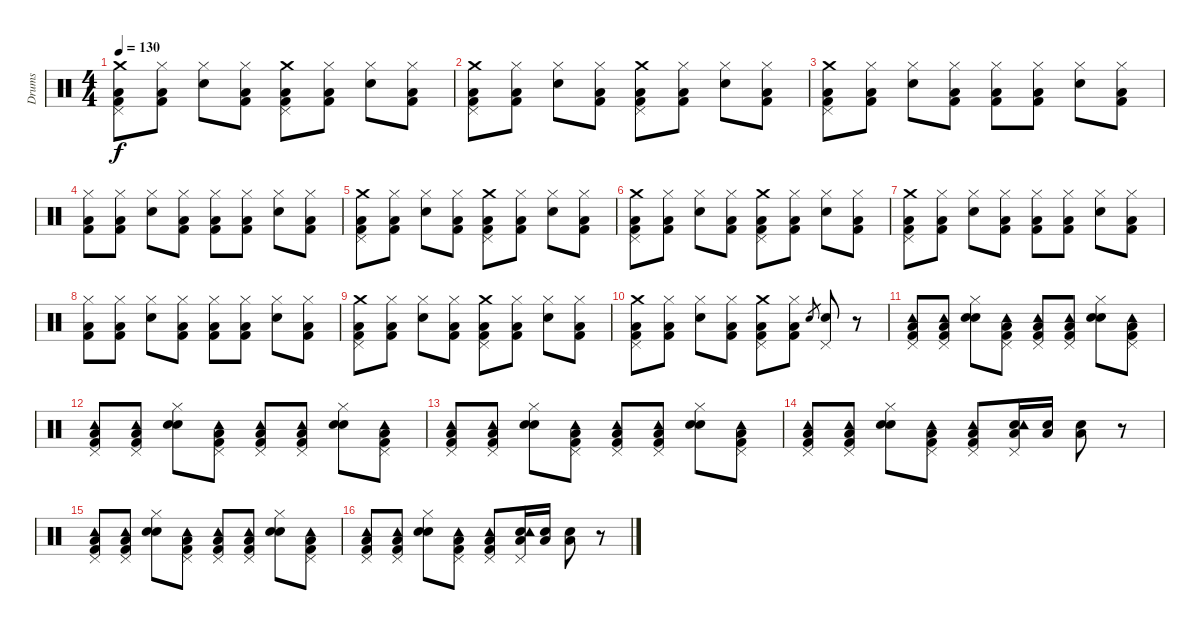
\track ("Drums" "Drums") {instrument percussion}
\staff {score}
\articulation defaults
\ts (4 4)
\tempo 130
\clef neutral
\ks c
("Kick (hit) 2" "Low Floor Tom (hit)" "Pedal Hi-Hat (hit)" "Crash medium (hit)").8{dy f} ("Kick (hit) 2" "Low Floor Tom (hit)" "Hi-Hat (closed)").8 ("Electric Snare (hit)" "Hi-Hat (closed)").8 ("Kick (hit) 2" "Low Floor Tom (hit)" "Hi-Hat (closed)").8 ("Kick (hit) 2" "Low Floor Tom (hit)" "Pedal Hi-Hat (hit)" "Crash medium (hit)").8 ("Kick (hit) 2" "Low Floor Tom (hit)" "Hi-Hat (closed)").8 ("Electric Snare (hit)" "Hi-Hat (closed)").8 ("Kick (hit) 2" "Low Floor Tom (hit)" "Hi-Hat (closed)").8 |
("Kick (hit) 2" "Low Floor Tom (hit)" "Pedal Hi-Hat (hit)" "Crash medium (hit)").8 ("Kick (hit) 2" "Low Floor Tom (hit)" "Hi-Hat (closed)").8 ("Electric Snare (hit)" "Hi-Hat (closed)").8 ("Kick (hit) 2" "Low Floor Tom (hit)" "Hi-Hat (closed)").8 ("Kick (hit) 2" "Low Floor Tom (hit)" "Pedal Hi-Hat (hit)" "Crash medium (hit)").8 ("Kick (hit) 2" "Low Floor Tom (hit)" "Hi-Hat (closed)").8 ("Electric Snare (hit)" "Hi-Hat (closed)").8 ("Kick (hit) 2" "Low Floor Tom (hit)" "Hi-Hat (closed)").8 |
("Kick (hit) 2" "Low Floor Tom (hit)" "Pedal Hi-Hat (hit)" "Crash medium (hit)").8 ("Kick (hit) 2" "Low Floor Tom (hit)" "Hi-Hat (closed)").8 ("Electric Snare (hit)" "Hi-Hat (closed)").8 ("Kick (hit) 2" "Low Floor Tom (hit)" "Hi-Hat (closed)").8 ("Kick (hit) 2" "Low Floor Tom (hit)" "Hi-Hat (closed)").8 ("Kick (hit) 2" "Low Floor Tom (hit)" "Hi-Hat (closed)").8 ("Electric Snare (hit)" "Hi-Hat (closed)").8 ("Kick (hit) 2" "Low Floor Tom (hit)" "Hi-Hat (closed)").8 |
("Kick (hit) 2" "Low Floor Tom (hit)" "Hi-Hat (closed)").8 ("Kick (hit) 2" "Low Floor Tom (hit)" "Hi-Hat (closed)").8 ("Electric Snare (hit)" "Hi-Hat (closed)").8 ("Kick (hit) 2" "Low Floor Tom (hit)" "Hi-Hat (closed)").8 ("Kick (hit) 2" "Low Floor Tom (hit)" "Hi-Hat (closed)").8 ("Kick (hit) 2" "Low Floor Tom (hit)" "Hi-Hat (closed)").8 ("Electric Snare (hit)" "Hi-Hat (closed)").8 ("Kick (hit) 2" "Low Floor Tom (hit)" "Hi-Hat (closed)").8 |
("Kick (hit) 2" "Low Floor Tom (hit)" "Pedal Hi-Hat (hit)" "Crash medium (hit)").8 ("Kick (hit) 2" "Low Floor Tom (hit)" "Hi-Hat (closed)").8 ("Electric Snare (hit)" "Hi-Hat (closed)").8 ("Kick (hit) 2" "Low Floor Tom (hit)" "Hi-Hat (closed)").8 ("Kick (hit) 2" "Low Floor Tom (hit)" "Pedal Hi-Hat (hit)" "Crash medium (hit)").8 ("Kick (hit) 2" "Low Floor Tom (hit)" "Hi-Hat (closed)").8 ("Electric Snare (hit)" "Hi-Hat (closed)").8 ("Kick (hit) 2" "Low Floor Tom (hit)" "Hi-Hat (closed)").8 |
("Kick (hit) 2" "Low Floor Tom (hit)" "Pedal Hi-Hat (hit)" "Crash medium (hit)").8 ("Kick (hit) 2" "Low Floor Tom (hit)" "Hi-Hat (closed)").8 ("Electric Snare (hit)" "Hi-Hat (closed)").8 ("Kick (hit) 2" "Low Floor Tom (hit)" "Hi-Hat (closed)").8 ("Kick (hit) 2" "Low Floor Tom (hit)" "Pedal Hi-Hat (hit)" "Crash medium (hit)").8 ("Kick (hit) 2" "Low Floor Tom (hit)" "Hi-Hat (closed)").8 ("Electric Snare (hit)" "Hi-Hat (closed)").8 ("Kick (hit) 2" "Low Floor Tom (hit)" "Hi-Hat (closed)").8 |
("Kick (hit) 2" "Low Floor Tom (hit)" "Pedal Hi-Hat (hit)" "Crash medium (hit)").8 ("Kick (hit) 2" "Low Floor Tom (hit)" "Hi-Hat (closed)").8 ("Electric Snare (hit)" "Hi-Hat (closed)").8 ("Kick (hit) 2" "Low Floor Tom (hit)" "Hi-Hat (closed)").8 ("Kick (hit) 2" "Low Floor Tom (hit)" "Hi-Hat (closed)").8 ("Kick (hit) 2" "Low Floor Tom (hit)" "Hi-Hat (closed)").8 ("Electric Snare (hit)" "Hi-Hat (closed)").8 ("Kick (hit) 2" "Low Floor Tom (hit)" "Hi-Hat (closed)").8 |
("Kick (hit) 2" "Low Floor Tom (hit)" "Hi-Hat (closed)").8 ("Kick (hit) 2" "Low Floor Tom (hit)" "Hi-Hat (closed)").8 ("Electric Snare (hit)" "Hi-Hat (closed)").8 ("Kick (hit) 2" "Low Floor Tom (hit)" "Hi-Hat (closed)").8 ("Kick (hit) 2" "Low Floor Tom (hit)" "Hi-Hat (closed)").8 ("Kick (hit) 2" "Low Floor Tom (hit)" "Hi-Hat (closed)").8 ("Electric Snare (hit)" "Hi-Hat (closed)").8 ("Kick (hit) 2" "Low Floor Tom (hit)" "Hi-Hat (closed)").8 |
("Kick (hit) 2" "Low Floor Tom (hit)" "Pedal Hi-Hat (hit)" "Crash medium (hit)").8 ("Kick (hit) 2" "Low Floor Tom (hit)" "Hi-Hat (closed)").8 ("Electric Snare (hit)" "Hi-Hat (closed)").8 ("Kick (hit) 2" "Low Floor Tom (hit)" "Hi-Hat (closed)").8 ("Kick (hit) 2" "Low Floor Tom (hit)" "Pedal Hi-Hat (hit)" "Crash medium (hit)").8 ("Kick (hit) 2" "Low Floor Tom (hit)" "Hi-Hat (closed)").8 ("Electric Snare (hit)" "Hi-Hat (closed)").8 ("Kick (hit) 2" "Low Floor Tom (hit)" "Hi-Hat (closed)").8 |
("Kick (hit) 2" "Low Floor Tom (hit)" "Pedal Hi-Hat (hit)" "Crash medium (hit)").8 ("Kick (hit) 2" "Low Floor Tom (hit)" "Hi-Hat (closed)").8 ("Electric Snare (hit)" "Hi-Hat (closed)").8 ("Kick (hit) 2" "Low Floor Tom (hit)" "Hi-Hat (closed)").8 ("Kick (hit) 2" "Low Floor Tom (hit)" "Pedal Hi-Hat (hit)" "Crash medium (hit)").8 ("Kick (hit) 2" "Low Floor Tom (hit)" "Hi-Hat (closed)").8 "Electric Snare (hit)".8{gr} ("Electric Snare (hit)" "Pedal Hi-Hat (hit)").8 r.8 |
("Kick (hit) 2" "Low Floor Tom (hit)" "Pedal Hi-Hat (hit)" "Tambourine (hit)").8{volume 13} ("Kick (hit) 2" "Low Floor Tom (hit)" "Pedal Hi-Hat (hit)" "Tambourine (hit)").8 ("Electric Snare (hit)" "Hand Clap (hit)" "Hi-Hat (closed)").8 ("Kick (hit) 2" "Low Floor Tom (hit)" "Pedal Hi-Hat (hit)" "Tambourine (hit)").8 ("Kick (hit) 2" "Low Floor Tom (hit)" "Pedal Hi-Hat (hit)" "Tambourine (hit)").8 ("Kick (hit) 2" "Low Floor Tom (hit)" "Pedal Hi-Hat (hit)" "Tambourine (hit)").8 ("Electric Snare (hit)" "Hand Clap (hit)" "Hi-Hat (closed)").8 ("Kick (hit) 2" "Low Floor Tom (hit)" "Pedal Hi-Hat (hit)" "Tambourine (hit)").8 |
("Kick (hit) 2" "Low Floor Tom (hit)" "Pedal Hi-Hat (hit)" "Tambourine (hit)").8{volume 13} ("Kick (hit) 2" "Low Floor Tom (hit)" "Pedal Hi-Hat (hit)" "Tambourine (hit)").8 ("Electric Snare (hit)" "Hand Clap (hit)" "Hi-Hat (closed)").8 ("Kick (hit) 2" "Low Floor Tom (hit)" "Pedal Hi-Hat (hit)" "Tambourine (hit)").8 ("Kick (hit) 2" "Low Floor Tom (hit)" "Pedal Hi-Hat (hit)" "Tambourine (hit)").8 ("Kick (hit) 2" "Low Floor Tom (hit)" "Pedal Hi-Hat (hit)" "Tambourine (hit)").8 ("Electric Snare (hit)" "Hand Clap (hit)" "Hi-Hat (closed)").8 ("Kick (hit) 2" "Low Floor Tom (hit)" "Pedal Hi-Hat (hit)" "Tambourine (hit)").8 |
("Kick (hit) 2" "Low Floor Tom (hit)" "Pedal Hi-Hat (hit)" "Tambourine (hit)").8{volume 13} ("Kick (hit) 2" "Low Floor Tom (hit)" "Pedal Hi-Hat (hit)" "Tambourine (hit)").8 ("Electric Snare (hit)" "Hand Clap (hit)" "Hi-Hat (closed)").8 ("Kick (hit) 2" "Low Floor Tom (hit)" "Pedal Hi-Hat (hit)" "Tambourine (hit)").8 ("Kick (hit) 2" "Low Floor Tom (hit)" "Pedal Hi-Hat (hit)" "Tambourine (hit)").8 ("Kick (hit) 2" "Low Floor Tom (hit)" "Pedal Hi-Hat (hit)" "Tambourine (hit)").8 ("Electric Snare (hit)" "Hand Clap (hit)" "Hi-Hat (closed)").8 ("Kick (hit) 2" "Low Floor Tom (hit)" "Pedal Hi-Hat (hit)" "Tambourine (hit)").8 |
("Kick (hit) 2" "Low Floor Tom (hit)" "Pedal Hi-Hat (hit)" "Tambourine (hit)").8{volume 13} ("Kick (hit) 2" "Low Floor Tom (hit)" "Pedal Hi-Hat (hit)" "Tambourine (hit)").8 ("Electric Snare (hit)" "Hand Clap (hit)" "Hi-Hat (closed)").8 ("Kick (hit) 2" "Low Floor Tom (hit)" "Pedal Hi-Hat (hit)" "Tambourine (hit)").8 ("Kick (hit) 2" "Low Floor Tom (hit)" "Pedal Hi-Hat (hit)" "Tambourine (hit)").8 ("Electric Snare (hit)" "Low Floor Tom (hit)" "Pedal Hi-Hat (hit)" "Tambourine (hit)").16 ("Electric Snare (hit)" "Low Floor Tom (hit)").16 ("Electric Snare (hit)" "Low Floor Tom (hit)").8 r.8 |
("Kick (hit) 2" "Low Floor Tom (hit)" "Pedal Hi-Hat (hit)" "Tambourine (hit)").8{volume 13} ("Kick (hit) 2" "Low Floor Tom (hit)" "Pedal Hi-Hat (hit)" "Tambourine (hit)").8 ("Electric Snare (hit)" "Hand Clap (hit)" "Hi-Hat (closed)").8 ("Kick (hit) 2" "Low Floor Tom (hit)" "Pedal Hi-Hat (hit)" "Tambourine (hit)").8 ("Kick (hit) 2" "Low Floor Tom (hit)" "Pedal Hi-Hat (hit)" "Tambourine (hit)").8 ("Kick (hit) 2" "Low Floor Tom (hit)" "Pedal Hi-Hat (hit)" "Tambourine (hit)").8 ("Electric Snare (hit)" "Hand Clap (hit)" "Hi-Hat (closed)").8 ("Kick (hit) 2" "Low Floor Tom (hit)" "Pedal Hi-Hat (hit)" "Tambourine (hit)").8 |
("Kick (hit) 2" "Low Floor Tom (hit)" "Pedal Hi-Hat (hit)" "Tambourine (hit)").8{volume 13} ("Kick (hit) 2" "Low Floor Tom (hit)" "Pedal Hi-Hat (hit)" "Tambourine (hit)").8 ("Electric Snare (hit)" "Hand Clap (hit)" "Hi-Hat (closed)").8 ("Kick (hit) 2" "Low Floor Tom (hit)" "Pedal Hi-Hat (hit)" "Tambourine (hit)").8 ("Kick (hit) 2" "Low Floor Tom (hit)" "Pedal Hi-Hat (hit)" "Tambourine (hit)").8 ("Electric Snare (hit)" "Low Floor Tom (hit)" "Pedal Hi-Hat (hit)" "Tambourine (hit)").16 ("Electric Snare (hit)" "Low Floor Tom (hit)").16 ("Electric Snare (hit)" "Low Floor Tom (hit)").8 r.8
